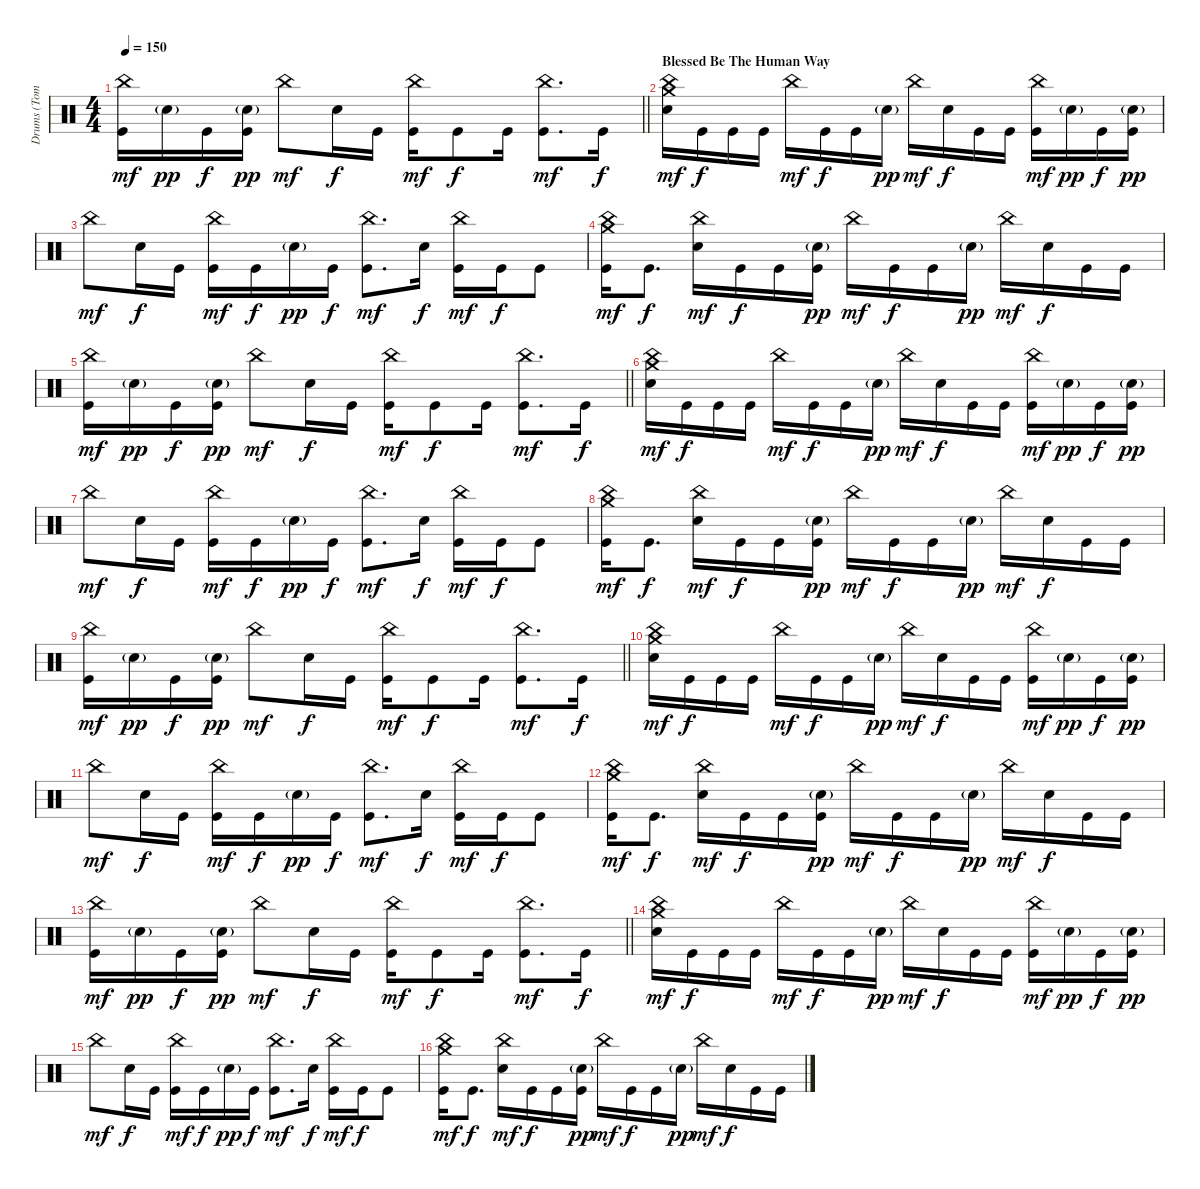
\track ("Drums (Tomas Haake)" "Drums (Tom") {instrument percussion}
\staff {score}
\articulation defaults
\ts (4 4)
\tempo 150
\clef neutral
\barLineRight lightlight
\ks c
("China (hit)" "Kick (hit)").16{dy mf} "Electric Snare (hit)"{g}.16{dy pp} "Kick (hit)".16{dy f} ("Electric Snare (hit)"{g} "Kick (hit)").16{dy pp} "China (hit)".8{dy mf} "Electric Snare (hit)".16{dy f} "Kick (hit)".16 ("China (hit)" "Kick (hit)").16{dy mf} "Kick (hit)".8{dy f} "Kick (hit)".16 ("China (hit)" "Kick (hit)").8{d dy mf} "Kick (hit)".16{dy f} |
\section ("" "Blessed Be The Human Way")
("China (hit)" "Crash medium (hit)" "Electric Snare (hit)").16{dy mf} "Kick (hit)".16{dy f} "Kick (hit)".16 "Kick (hit)".16 "China (hit)".16{dy mf} "Kick (hit)".16{dy f} "Kick (hit)".16 "Electric Snare (hit)"{g}.16{dy pp} "China (hit)".16{dy mf} "Electric Snare (hit)".16{dy f} "Kick (hit)".16 "Kick (hit)".16 ("China (hit)" "Kick (hit)").16{dy mf} "Electric Snare (hit)"{g}.16{dy pp} "Kick (hit)".16{dy f} ("Electric Snare (hit)"{g} "Kick (hit)").16{dy pp} |
"China (hit)".8{dy mf} "Electric Snare (hit)".16{dy f} "Kick (hit)".16 ("China (hit)" "Kick (hit)").16{dy mf} "Kick (hit)".16{dy f} "Electric Snare (hit)"{g}.16{dy pp} "Kick (hit)".16{dy f} ("China (hit)" "Kick (hit)").8{d dy mf} "Electric Snare (hit)".16{dy f} ("China (hit)" "Kick (hit)").16{dy mf} "Kick (hit)".16{dy f} "Kick (hit)".8 |
("China (hit)" "Crash medium (hit)" "Kick (hit)").16{dy mf} "Kick (hit)".8{d dy f} ("China (hit)" "Electric Snare (hit)").16{dy mf} "Kick (hit)".16{dy f} "Kick (hit)".16 ("Electric Snare (hit)"{g} "Kick (hit)").16{dy pp} "China (hit)".16{dy mf} "Kick (hit)".16{dy f} "Kick (hit)".16 "Electric Snare (hit)"{g}.16{dy pp} "China (hit)".16{dy mf} "Electric Snare (hit)".16{dy f} "Kick (hit)".16 "Kick (hit)".16 |
\barLineRight lightlight
("China (hit)" "Kick (hit)").16{dy mf} "Electric Snare (hit)"{g}.16{dy pp} "Kick (hit)".16{dy f} ("Electric Snare (hit)"{g} "Kick (hit)").16{dy pp} "China (hit)".8{dy mf} "Electric Snare (hit)".16{dy f} "Kick (hit)".16 ("China (hit)" "Kick (hit)").16{dy mf} "Kick (hit)".8{dy f} "Kick (hit)".16 ("China (hit)" "Kick (hit)").8{d dy mf} "Kick (hit)".16{dy f} |
("China (hit)" "Crash medium (hit)" "Electric Snare (hit)").16{dy mf} "Kick (hit)".16{dy f} "Kick (hit)".16 "Kick (hit)".16 "China (hit)".16{dy mf} "Kick (hit)".16{dy f} "Kick (hit)".16 "Electric Snare (hit)"{g}.16{dy pp} "China (hit)".16{dy mf} "Electric Snare (hit)".16{dy f} "Kick (hit)".16 "Kick (hit)".16 ("China (hit)" "Kick (hit)").16{dy mf} "Electric Snare (hit)"{g}.16{dy pp} "Kick (hit)".16{dy f} ("Electric Snare (hit)"{g} "Kick (hit)").16{dy pp} |
"China (hit)".8{dy mf} "Electric Snare (hit)".16{dy f} "Kick (hit)".16 ("China (hit)" "Kick (hit)").16{dy mf} "Kick (hit)".16{dy f} "Electric Snare (hit)"{g}.16{dy pp} "Kick (hit)".16{dy f} ("China (hit)" "Kick (hit)").8{d dy mf} "Electric Snare (hit)".16{dy f} ("China (hit)" "Kick (hit)").16{dy mf} "Kick (hit)".16{dy f} "Kick (hit)".8 |
("China (hit)" "Crash medium (hit)" "Kick (hit)").16{dy mf} "Kick (hit)".8{d dy f} ("China (hit)" "Electric Snare (hit)").16{dy mf} "Kick (hit)".16{dy f} "Kick (hit)".16 ("Electric Snare (hit)"{g} "Kick (hit)").16{dy pp} "China (hit)".16{dy mf} "Kick (hit)".16{dy f} "Kick (hit)".16 "Electric Snare (hit)"{g}.16{dy pp} "China (hit)".16{dy mf} "Electric Snare (hit)".16{dy f} "Kick (hit)".16 "Kick (hit)".16 |
\barLineRight lightlight
("China (hit)" "Kick (hit)").16{dy mf} "Electric Snare (hit)"{g}.16{dy pp} "Kick (hit)".16{dy f} ("Electric Snare (hit)"{g} "Kick (hit)").16{dy pp} "China (hit)".8{dy mf} "Electric Snare (hit)".16{dy f} "Kick (hit)".16 ("China (hit)" "Kick (hit)").16{dy mf} "Kick (hit)".8{dy f} "Kick (hit)".16 ("China (hit)" "Kick (hit)").8{d dy mf} "Kick (hit)".16{dy f} |
("China (hit)" "Crash medium (hit)" "Electric Snare (hit)").16{dy mf volume 7} "Kick (hit)".16{dy f} "Kick (hit)".16 "Kick (hit)".16 "China (hit)".16{dy mf} "Kick (hit)".16{dy f} "Kick (hit)".16 "Electric Snare (hit)"{g}.16{dy pp} "China (hit)".16{dy mf} "Electric Snare (hit)".16{dy f} "Kick (hit)".16 "Kick (hit)".16 ("China (hit)" "Kick (hit)").16{dy mf} "Electric Snare (hit)"{g}.16{dy pp} "Kick (hit)".16{dy f} ("Electric Snare (hit)"{g} "Kick (hit)").16{dy pp} |
"China (hit)".8{dy mf} "Electric Snare (hit)".16{dy f} "Kick (hit)".16 ("China (hit)" "Kick (hit)").16{dy mf} "Kick (hit)".16{dy f} "Electric Snare (hit)"{g}.16{dy pp} "Kick (hit)".16{dy f} ("China (hit)" "Kick (hit)").8{d dy mf} "Electric Snare (hit)".16{dy f} ("China (hit)" "Kick (hit)").16{dy mf} "Kick (hit)".16{dy f} "Kick (hit)".8 |
("China (hit)" "Crash medium (hit)" "Kick (hit)").16{dy mf} "Kick (hit)".8{d dy f} ("China (hit)" "Electric Snare (hit)").16{dy mf} "Kick (hit)".16{dy f} "Kick (hit)".16 ("Electric Snare (hit)"{g} "Kick (hit)").16{dy pp} "China (hit)".16{dy mf} "Kick (hit)".16{dy f} "Kick (hit)".16 "Electric Snare (hit)"{g}.16{dy pp} "China (hit)".16{dy mf} "Electric Snare (hit)".16{dy f} "Kick (hit)".16 "Kick (hit)".16 |
\barLineRight lightlight
("China (hit)" "Kick (hit)").16{dy mf} "Electric Snare (hit)"{g}.16{dy pp} "Kick (hit)".16{dy f} ("Electric Snare (hit)"{g} "Kick (hit)").16{dy pp} "China (hit)".8{dy mf} "Electric Snare (hit)".16{dy f} "Kick (hit)".16 ("China (hit)" "Kick (hit)").16{dy mf} "Kick (hit)".8{dy f} "Kick (hit)".16 ("China (hit)" "Kick (hit)").8{d dy mf} "Kick (hit)".16{dy f} |
("China (hit)" "Crash medium (hit)" "Electric Snare (hit)").16{dy mf volume 0} "Kick (hit)".16{dy f} "Kick (hit)".16 "Kick (hit)".16 "China (hit)".16{dy mf} "Kick (hit)".16{dy f} "Kick (hit)".16 "Electric Snare (hit)"{g}.16{dy pp} "China (hit)".16{dy mf} "Electric Snare (hit)".16{dy f} "Kick (hit)".16 "Kick (hit)".16 ("China (hit)" "Kick (hit)").16{dy mf} "Electric Snare (hit)"{g}.16{dy pp} "Kick (hit)".16{dy f} ("Electric Snare (hit)"{g} "Kick (hit)").16{dy pp} |
"China (hit)".8{dy mf} "Electric Snare (hit)".16{dy f} "Kick (hit)".16 ("China (hit)" "Kick (hit)").16{dy mf} "Kick (hit)".16{dy f} "Electric Snare (hit)"{g}.16{dy pp} "Kick (hit)".16{dy f} ("China (hit)" "Kick (hit)").8{d dy mf} "Electric Snare (hit)".16{dy f} ("China (hit)" "Kick (hit)").16{dy mf} "Kick (hit)".16{dy f} "Kick (hit)".8 |
("China (hit)" "Crash medium (hit)" "Kick (hit)").16{dy mf} "Kick (hit)".8{d dy f} ("China (hit)" "Electric Snare (hit)").16{dy mf} "Kick (hit)".16{dy f} "Kick (hit)".16 ("Electric Snare (hit)"{g} "Kick (hit)").16{dy pp} "China (hit)".16{dy mf} "Kick (hit)".16{dy f} "Kick (hit)".16 "Electric Snare (hit)"{g}.16{dy pp} "China (hit)".16{dy mf} "Electric Snare (hit)".16{dy f} "Kick (hit)".16 "Kick (hit)".16
